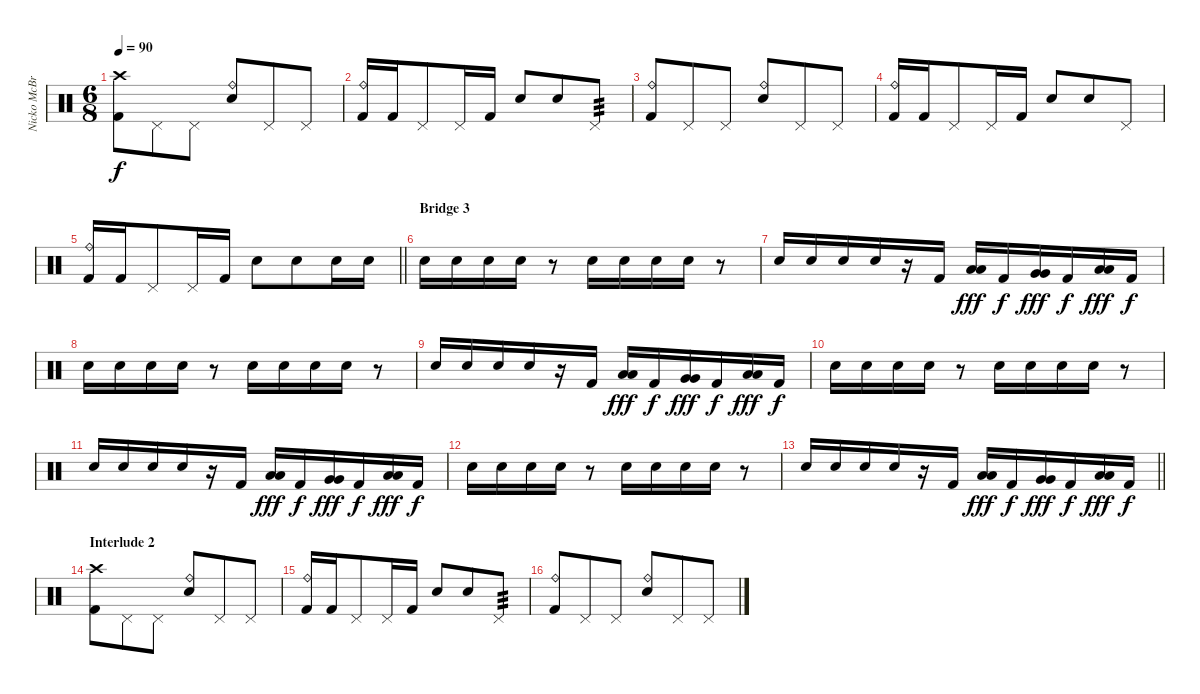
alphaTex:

\track ("Nicko McBrain" "Nicko McBr") {instrument percussion}
\staff {score}
\articulation defaults
\ts (6 8)
\tempo 90
\clef neutral
\ks c
("Crash high (hit)" "Kick (hit) 2").8{dy f} "Pedal Hi-Hat (hit)".8 "Pedal Hi-Hat (hit)".8 ("Ride (bell)" "Electric Snare (hit)").8 "Pedal Hi-Hat (hit)".8 "Pedal Hi-Hat (hit)".8 |
("Ride (bell)" "Kick (hit) 2").16 "Kick (hit) 2".16 "Pedal Hi-Hat (hit)".8 "Pedal Hi-Hat (hit)".16 "Kick (hit) 2".16 "Electric Snare (hit)".8 "Electric Snare (hit)".8 "Pedal Hi-Hat (hit)".8{tp 3} |
("Ride (bell)" "Kick (hit) 2").8 "Pedal Hi-Hat (hit)".8 "Pedal Hi-Hat (hit)".8 ("Ride (bell)" "Electric Snare (hit)").8 "Pedal Hi-Hat (hit)".8 "Pedal Hi-Hat (hit)".8 |
("Ride (bell)" "Kick (hit) 2").16 "Kick (hit) 2".16 "Pedal Hi-Hat (hit)".8 "Pedal Hi-Hat (hit)".16 "Kick (hit) 2".16 "Electric Snare (hit)".8 "Electric Snare (hit)".8 "Pedal Hi-Hat (hit)".8 |
\barLineRight lightlight
("Ride (bell)" "Kick (hit) 2").16 "Kick (hit) 2".16 "Pedal Hi-Hat (hit)".8 "Pedal Hi-Hat (hit)".16 "Kick (hit) 2".16 "Electric Snare (hit)".8 "Electric Snare (hit)".8 "Electric Snare (hit)".16 "Electric Snare (hit)".16 |
\section ("" "Bridge 3")
"Electric Snare (hit)".16 "Electric Snare (hit)".16 "Electric Snare (hit)".16 "Electric Snare (hit)".16 r.8 "Electric Snare (hit)".16 "Electric Snare (hit)".16 "Electric Snare (hit)".16 "Electric Snare (hit)".16 r.8 |
"Electric Snare (hit)".16 "Electric Snare (hit)".16 "Electric Snare (hit)".16 "Electric Snare (hit)".16 r.16 "Kick (hit) 2".16 ("Low Tom (hit)" "Low Tom (hit)").16{dy fff} "Kick (hit) 2".16{dy f} ("Very Low Tom (hit)" "Very Low Tom (hit)").16{dy fff} "Kick (hit) 2".16{dy f} ("Low Floor Tom (hit)" "Low Floor Tom (hit)").16{dy fff} "Kick (hit) 2".16{dy f} |
"Electric Snare (hit)".16 "Electric Snare (hit)".16 "Electric Snare (hit)".16 "Electric Snare (hit)".16 r.8 "Electric Snare (hit)".16 "Electric Snare (hit)".16 "Electric Snare (hit)".16 "Electric Snare (hit)".16 r.8 |
"Electric Snare (hit)".16 "Electric Snare (hit)".16 "Electric Snare (hit)".16 "Electric Snare (hit)".16 r.16 "Kick (hit) 2".16 ("Low Tom (hit)" "Low Tom (hit)").16{dy fff} "Kick (hit) 2".16{dy f} ("Very Low Tom (hit)" "Very Low Tom (hit)").16{dy fff} "Kick (hit) 2".16{dy f} ("Low Floor Tom (hit)" "Low Floor Tom (hit)").16{dy fff} "Kick (hit) 2".16{dy f} |
"Electric Snare (hit)".16 "Electric Snare (hit)".16 "Electric Snare (hit)".16 "Electric Snare (hit)".16 r.8 "Electric Snare (hit)".16 "Electric Snare (hit)".16 "Electric Snare (hit)".16 "Electric Snare (hit)".16 r.8 |
"Electric Snare (hit)".16 "Electric Snare (hit)".16 "Electric Snare (hit)".16 "Electric Snare (hit)".16 r.16 "Kick (hit) 2".16 ("Low Tom (hit)" "Low Tom (hit)").16{dy fff} "Kick (hit) 2".16{dy f} ("Very Low Tom (hit)" "Very Low Tom (hit)").16{dy fff} "Kick (hit) 2".16{dy f} ("Low Floor Tom (hit)" "Low Floor Tom (hit)").16{dy fff} "Kick (hit) 2".16{dy f} |
"Electric Snare (hit)".16 "Electric Snare (hit)".16 "Electric Snare (hit)".16 "Electric Snare (hit)".16 r.8 "Electric Snare (hit)".16 "Electric Snare (hit)".16 "Electric Snare (hit)".16 "Electric Snare (hit)".16 r.8 |
\barLineRight lightlight "Electric Snare (hit)".16 "Electric Snare (hit)".16 "Electric Snare (hit)".16 "Electric Snare (hit)".16
r.16 "Kick (hit) 2".16 ("Low Tom (hit)" "Low Tom (hit)").16{dy fff} "Kick (hit) 2".16{dy f} ("Very Low Tom (hit)" "Very Low Tom (hit)").16{dy fff} "Kick (hit) 2".16{dy f} ("Low Floor Tom (hit)" "Low Floor Tom (hit)").16{dy fff} "Kick (hit) 2".16{dy f} |
\section ("" "Interlude 2")
("Crash high (hit)" "Kick (hit) 2").8 "Pedal Hi-Hat (hit)".8 "Pedal Hi-Hat (hit)".8 ("Ride (bell)" "Electric Snare (hit)").8 "Pedal Hi-Hat (hit)".8 "Pedal Hi-Hat (hit)".8 |
("Ride (bell)" "Kick (hit) 2").16 "Kick (hit) 2".16 "Pedal Hi-Hat (hit)".8 "Pedal Hi-Hat (hit)".16 "Kick (hit) 2".16 "Electric Snare (hit)".8 "Electric Snare (hit)".8 "Pedal Hi-Hat (hit)".8{tp 3} |
("Ride (bell)" "Kick (hit) 2").8 "Pedal Hi-Hat (hit)".8 "Pedal Hi-Hat (hit)".8 ("Ride (bell)" "Electric Snare (hit)").8 "Pedal Hi-Hat (hit)".8 "Pedal Hi-Hat (hit)".8
